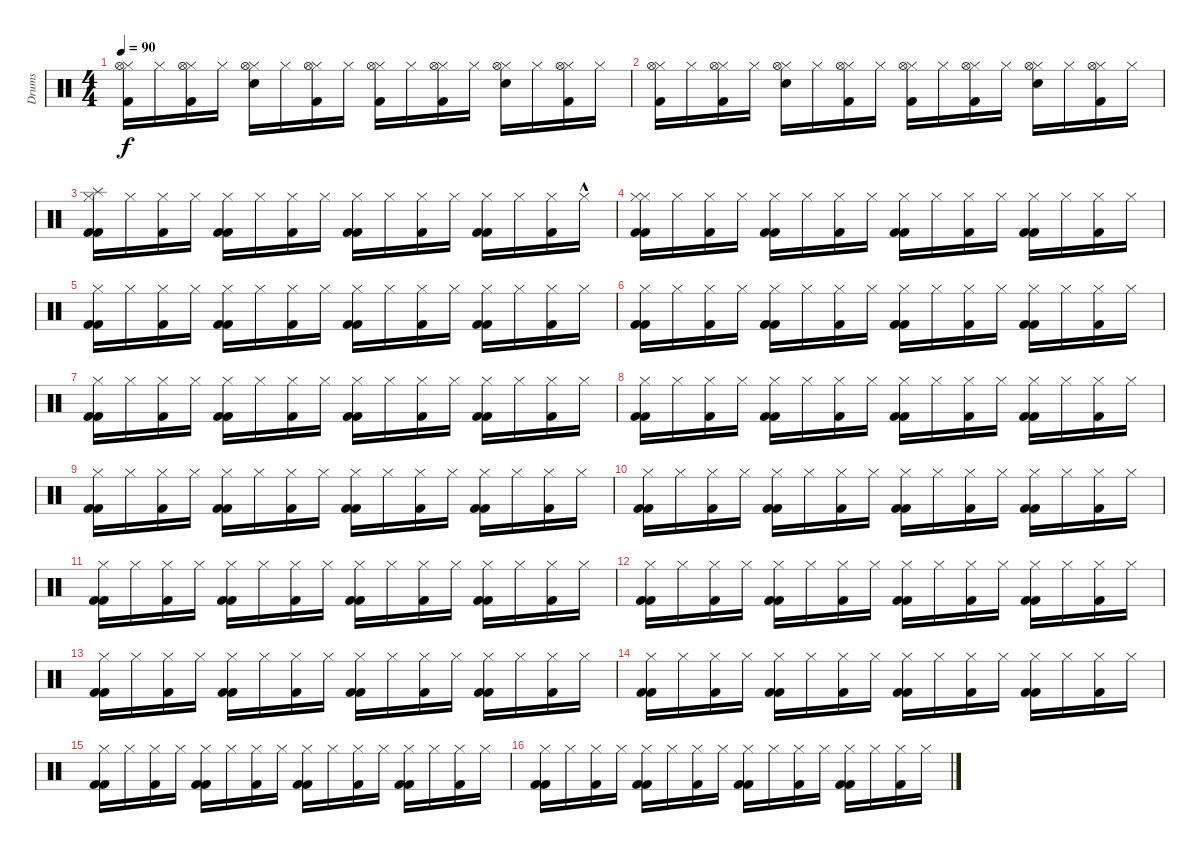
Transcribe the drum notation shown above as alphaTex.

\track ("Drums" "Drums") {instrument percussion}
\staff {score}
\articulation defaults
\ts (4 4)
\tempo 90
\clef neutral
\ks c
("Kick (hit) 2" "Hi-Hat (closed)" "Hi-Hat (open)").16{dy f} "Hi-Hat (closed)".16 ("Kick (hit) 2" "Hi-Hat (closed)" "Hi-Hat (open)").16 "Hi-Hat (closed)".16 ("Snare (hit) 2" "Hi-Hat (closed)" "Hi-Hat (open)").16 "Hi-Hat (closed)".16 ("Kick (hit) 2" "Hi-Hat (closed)" "Hi-Hat (open)").16 "Hi-Hat (closed)".16 ("Kick (hit) 2" "Hi-Hat (closed)" "Hi-Hat (open)").16 "Hi-Hat (closed)".16 ("Kick (hit) 2" "Hi-Hat (closed)" "Hi-Hat (open)").16 "Hi-Hat (closed)".16 ("Snare (hit) 2" "Hi-Hat (closed)" "Hi-Hat (open)").16 "Hi-Hat (closed)".16 ("Kick (hit) 2" "Hi-Hat (closed)" "Hi-Hat (open)").16 "Hi-Hat (closed)".16 |
("Kick (hit) 2" "Hi-Hat (closed)" "Hi-Hat (open)").16 "Hi-Hat (closed)".16 ("Kick (hit) 2" "Hi-Hat (closed)" "Hi-Hat (open)").16 "Hi-Hat (closed)".16 ("Snare (hit) 2" "Hi-Hat (closed)" "Hi-Hat (open)").16 "Hi-Hat (closed)".16 ("Kick (hit) 2" "Hi-Hat (closed)" "Hi-Hat (open)").16 "Hi-Hat (closed)".16 ("Kick (hit) 2" "Hi-Hat (closed)" "Hi-Hat (open)").16 "Hi-Hat (closed)".16 ("Kick (hit) 2" "Hi-Hat (closed)" "Hi-Hat (open)").16 "Hi-Hat (closed)".16 ("Snare (hit) 2" "Hi-Hat (closed)" "Hi-Hat (open)").16 "Hi-Hat (closed)".16 ("Kick (hit) 2" "Hi-Hat (closed)" "Hi-Hat (open)").16 "Hi-Hat (closed)".16 |
("Splash (hit)" "Kick (hit) 2" "Kick (hit) 2" "Hi-Hat (closed)").16 "Hi-Hat (closed)".16 ("Kick (hit) 2" "Hi-Hat (closed)").16 "Hi-Hat (closed)".16 ("Kick (hit) 2" "Kick (hit) 2" "Hi-Hat (closed)").16 "Hi-Hat (closed)".16 ("Kick (hit) 2" "Hi-Hat (closed)").16 "Hi-Hat (closed)".16 ("Kick (hit) 2" "Kick (hit) 2" "Hi-Hat (closed)").16 "Hi-Hat (closed)".16 ("Kick (hit) 2" "Hi-Hat (closed)").16 "Hi-Hat (closed)".16 ("Kick (hit) 2" "Kick (hit) 2" "Hi-Hat (closed)").16 "Hi-Hat (closed)".16 ("Kick (hit) 2" "Hi-Hat (closed)").16 "Hi-Hat (closed)"{hac}.16 |
("Hi-Hat (closed)" "Kick (hit) 2" "Kick (hit) 2" "Hi-Hat (closed)").16 "Hi-Hat (closed)".16 ("Kick (hit) 2" "Hi-Hat (closed)").16 "Hi-Hat (closed)".16 ("Kick (hit) 2" "Kick (hit) 2" "Hi-Hat (closed)").16 "Hi-Hat (closed)".16 ("Kick (hit) 2" "Hi-Hat (closed)").16 "Hi-Hat (closed)".16 ("Kick (hit) 2" "Kick (hit) 2" "Hi-Hat (closed)").16 "Hi-Hat (closed)".16 ("Kick (hit) 2" "Hi-Hat (closed)").16 "Hi-Hat (closed)".16 ("Kick (hit) 2" "Kick (hit) 2" "Hi-Hat (closed)").16 "Hi-Hat (closed)".16 ("Kick (hit) 2" "Hi-Hat (closed)").16 "Hi-Hat (closed)".16 |
("Kick (hit) 2" "Kick (hit) 2" "Hi-Hat (closed)").16 "Hi-Hat (closed)".16 ("Kick (hit) 2" "Hi-Hat (closed)").16 "Hi-Hat (closed)".16 ("Kick (hit) 2" "Kick (hit) 2" "Hi-Hat (closed)").16 "Hi-Hat (closed)".16 ("Kick (hit) 2" "Hi-Hat (closed)").16 "Hi-Hat (closed)".16 ("Kick (hit) 2" "Kick (hit) 2" "Hi-Hat (closed)").16 "Hi-Hat (closed)".16 ("Kick (hit) 2" "Hi-Hat (closed)").16 "Hi-Hat (closed)".16 ("Kick (hit) 2" "Kick (hit) 2" "Hi-Hat (closed)").16 "Hi-Hat (closed)".16 ("Kick (hit) 2" "Hi-Hat (closed)").16 "Hi-Hat (closed)".16 |
("Kick (hit) 2" "Kick (hit) 2" "Hi-Hat (closed)").16 "Hi-Hat (closed)".16 ("Kick (hit) 2" "Hi-Hat (closed)").16 "Hi-Hat (closed)".16 ("Kick (hit) 2" "Kick (hit) 2" "Hi-Hat (closed)").16 "Hi-Hat (closed)".16 ("Kick (hit) 2" "Hi-Hat (closed)").16 "Hi-Hat (closed)".16 ("Kick (hit) 2" "Kick (hit) 2" "Hi-Hat (closed)").16 "Hi-Hat (closed)".16 ("Kick (hit) 2" "Hi-Hat (closed)").16 "Hi-Hat (closed)".16 ("Kick (hit) 2" "Kick (hit) 2" "Hi-Hat (closed)").16 "Hi-Hat (closed)".16 ("Kick (hit) 2" "Hi-Hat (closed)").16 "Hi-Hat (closed)".16 |
("Kick (hit) 2" "Kick (hit) 2" "Hi-Hat (closed)").16 "Hi-Hat (closed)".16 ("Kick (hit) 2" "Hi-Hat (closed)").16 "Hi-Hat (closed)".16 ("Kick (hit) 2" "Kick (hit) 2" "Hi-Hat (closed)").16 "Hi-Hat (closed)".16 ("Kick (hit) 2" "Hi-Hat (closed)").16 "Hi-Hat (closed)".16 ("Kick (hit) 2" "Kick (hit) 2" "Hi-Hat (closed)").16 "Hi-Hat (closed)".16 ("Kick (hit) 2" "Hi-Hat (closed)").16 "Hi-Hat (closed)".16 ("Kick (hit) 2" "Kick (hit) 2" "Hi-Hat (closed)").16 "Hi-Hat (closed)".16 ("Kick (hit) 2" "Hi-Hat (closed)").16 "Hi-Hat (closed)".16 |
("Kick (hit) 2" "Kick (hit) 2" "Hi-Hat (closed)").16 "Hi-Hat (closed)".16 ("Kick (hit) 2" "Hi-Hat (closed)").16 "Hi-Hat (closed)".16 ("Kick (hit) 2" "Kick (hit) 2" "Hi-Hat (closed)").16 "Hi-Hat (closed)".16 ("Kick (hit) 2" "Hi-Hat (closed)").16 "Hi-Hat (closed)".16 ("Kick (hit) 2" "Kick (hit) 2" "Hi-Hat (closed)").16 "Hi-Hat (closed)".16 ("Kick (hit) 2" "Hi-Hat (closed)").16 "Hi-Hat (closed)".16 ("Kick (hit) 2" "Kick (hit) 2" "Hi-Hat (closed)").16 "Hi-Hat (closed)".16 ("Kick (hit) 2" "Hi-Hat (closed)").16 "Hi-Hat (closed)".16 |
("Kick (hit) 2" "Kick (hit) 2" "Hi-Hat (closed)").16 "Hi-Hat (closed)".16 ("Kick (hit) 2" "Hi-Hat (closed)").16 "Hi-Hat (closed)".16 ("Kick (hit) 2" "Kick (hit) 2" "Hi-Hat (closed)").16 "Hi-Hat (closed)".16 ("Kick (hit) 2" "Hi-Hat (closed)").16 "Hi-Hat (closed)".16 ("Kick (hit) 2" "Kick (hit) 2" "Hi-Hat (closed)").16 "Hi-Hat (closed)".16 ("Kick (hit) 2" "Hi-Hat (closed)").16 "Hi-Hat (closed)".16 ("Kick (hit) 2" "Kick (hit) 2" "Hi-Hat (closed)").16 "Hi-Hat (closed)".16 ("Kick (hit) 2" "Hi-Hat (closed)").16 "Hi-Hat (closed)".16 |
("Kick (hit) 2" "Kick (hit) 2" "Hi-Hat (closed)").16 "Hi-Hat (closed)".16 ("Kick (hit) 2" "Hi-Hat (closed)").16 "Hi-Hat (closed)".16 ("Kick (hit) 2" "Kick (hit) 2" "Hi-Hat (closed)").16 "Hi-Hat (closed)".16 ("Kick (hit) 2" "Hi-Hat (closed)").16 "Hi-Hat (closed)".16 ("Kick (hit) 2" "Kick (hit) 2" "Hi-Hat (closed)").16 "Hi-Hat (closed)".16 ("Kick (hit) 2" "Hi-Hat (closed)").16 "Hi-Hat (closed)".16 ("Kick (hit) 2" "Kick (hit) 2" "Hi-Hat (closed)").16 "Hi-Hat (closed)".16 ("Kick (hit) 2" "Hi-Hat (closed)").16 "Hi-Hat (closed)".16 |
("Kick (hit) 2" "Kick (hit) 2" "Hi-Hat (closed)").16 "Hi-Hat (closed)".16 ("Kick (hit) 2" "Hi-Hat (closed)").16 "Hi-Hat (closed)".16 ("Kick (hit) 2" "Kick (hit) 2" "Hi-Hat (closed)").16 "Hi-Hat (closed)".16 ("Kick (hit) 2" "Hi-Hat (closed)").16 "Hi-Hat (closed)".16 ("Kick (hit) 2" "Kick (hit) 2" "Hi-Hat (closed)").16 "Hi-Hat (closed)".16 ("Kick (hit) 2" "Hi-Hat (closed)").16 "Hi-Hat (closed)".16 ("Kick (hit) 2" "Kick (hit) 2" "Hi-Hat (closed)").16 "Hi-Hat (closed)".16 ("Kick (hit) 2" "Hi-Hat (closed)").16 "Hi-Hat (closed)".16 |
("Kick (hit) 2" "Kick (hit) 2" "Hi-Hat (closed)").16 "Hi-Hat (closed)".16 ("Kick (hit) 2" "Hi-Hat (closed)").16 "Hi-Hat (closed)".16 ("Kick (hit) 2" "Kick (hit) 2" "Hi-Hat (closed)").16 "Hi-Hat (closed)".16 ("Kick (hit) 2" "Hi-Hat (closed)").16 "Hi-Hat (closed)".16 ("Kick (hit) 2" "Kick (hit) 2" "Hi-Hat (closed)").16 "Hi-Hat (closed)".16 ("Kick (hit) 2" "Hi-Hat (closed)").16 "Hi-Hat (closed)".16 ("Kick (hit) 2" "Kick (hit) 2" "Hi-Hat (closed)").16 "Hi-Hat (closed)".16 ("Kick (hit) 2" "Hi-Hat (closed)").16 "Hi-Hat (closed)".16 |
("Kick (hit) 2" "Kick (hit) 2" "Hi-Hat (closed)").16 "Hi-Hat (closed)".16 ("Kick (hit) 2" "Hi-Hat (closed)").16 "Hi-Hat (closed)".16 ("Kick (hit) 2" "Kick (hit) 2" "Hi-Hat (closed)").16 "Hi-Hat (closed)".16 ("Kick (hit) 2" "Hi-Hat (closed)").16 "Hi-Hat (closed)".16 ("Kick (hit) 2" "Kick (hit) 2" "Hi-Hat (closed)").16 "Hi-Hat (closed)".16 ("Kick (hit) 2" "Hi-Hat (closed)").16 "Hi-Hat (closed)".16 ("Kick (hit) 2" "Kick (hit) 2" "Hi-Hat (closed)").16 "Hi-Hat (closed)".16 ("Kick (hit) 2" "Hi-Hat (closed)").16 "Hi-Hat (closed)".16 |
("Kick (hit) 2" "Kick (hit) 2" "Hi-Hat (closed)").16 "Hi-Hat (closed)".16 ("Kick (hit) 2" "Hi-Hat (closed)").16 "Hi-Hat (closed)".16 ("Kick (hit) 2" "Kick (hit) 2" "Hi-Hat (closed)").16 "Hi-Hat (closed)".16 ("Kick (hit) 2" "Hi-Hat (closed)").16 "Hi-Hat (closed)".16 ("Kick (hit) 2" "Kick (hit) 2" "Hi-Hat (closed)").16 "Hi-Hat (closed)".16 ("Kick (hit) 2" "Hi-Hat (closed)").16 "Hi-Hat (closed)".16 ("Kick (hit) 2" "Kick (hit) 2" "Hi-Hat (closed)").16 "Hi-Hat (closed)".16 ("Kick (hit) 2" "Hi-Hat (closed)").16 "Hi-Hat (closed)".16 |
("Kick (hit) 2" "Kick (hit) 2" "Hi-Hat (closed)").16 "Hi-Hat (closed)".16 ("Kick (hit) 2" "Hi-Hat (closed)").16 "Hi-Hat (closed)".16 ("Kick (hit) 2" "Kick (hit) 2" "Hi-Hat (closed)").16 "Hi-Hat (closed)".16 ("Kick (hit) 2" "Hi-Hat (closed)").16 "Hi-Hat (closed)".16 ("Kick (hit) 2" "Kick (hit) 2" "Hi-Hat (closed)").16 "Hi-Hat (closed)".16 ("Kick (hit) 2" "Hi-Hat (closed)").16 "Hi-Hat (closed)".16 ("Kick (hit) 2" "Kick (hit) 2" "Hi-Hat (closed)").16 "Hi-Hat (closed)".16 ("Kick (hit) 2" "Hi-Hat (closed)").16 "Hi-Hat (closed)".16 |
("Kick (hit) 2" "Kick (hit) 2" "Hi-Hat (closed)").16 "Hi-Hat (closed)".16 ("Kick (hit) 2" "Hi-Hat (closed)").16 "Hi-Hat (closed)".16 ("Kick (hit) 2" "Kick (hit) 2" "Hi-Hat (closed)").16 "Hi-Hat (closed)".16 ("Kick (hit) 2" "Hi-Hat (closed)").16 "Hi-Hat (closed)".16 ("Kick (hit) 2" "Kick (hit) 2" "Hi-Hat (closed)").16 "Hi-Hat (closed)".16 ("Kick (hit) 2" "Hi-Hat (closed)").16 "Hi-Hat (closed)".16 ("Kick (hit) 2" "Kick (hit) 2" "Hi-Hat (closed)").16 "Hi-Hat (closed)".16 ("Kick (hit) 2" "Hi-Hat (closed)").16 "Hi-Hat (closed)".16
